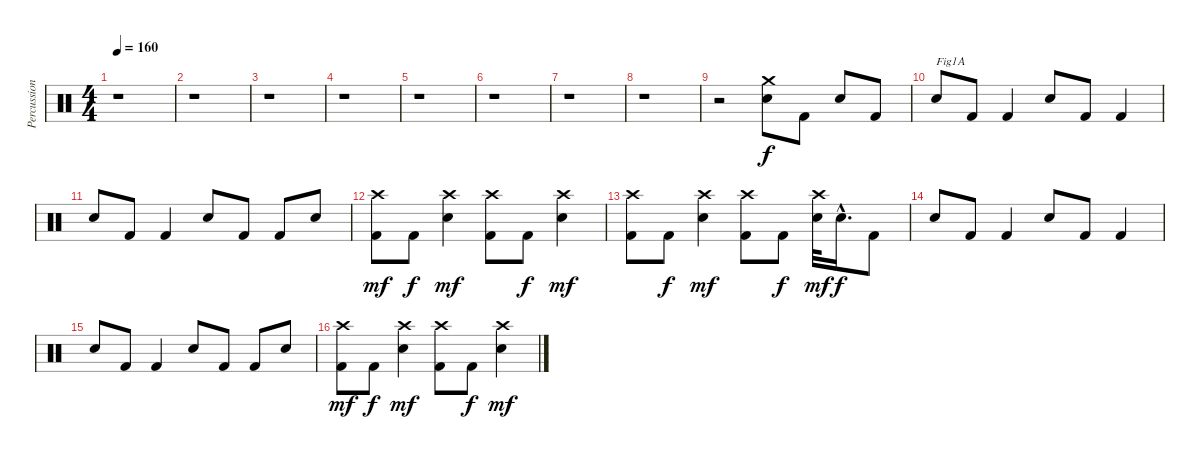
\track ("Percussions" "Percussion") {instrument percussion}
\staff {score}
\articulation defaults
\ts (4 4)
\tempo 160
\clef neutral
\ks c
r.1{dy f} |
r.1 |
r.1 |
r.1 |
r.1 |
r.1 |
r.1 |
r.1 |
r.2 ("Electric Snare (hit)" "Crash medium (hit)").8 "Kick (hit) 2".8 "Electric Snare (hit)".8 "Kick (hit) 2".8 |
"Electric Snare (hit)".8{txt "Fig1A"} "Kick (hit) 2".8 "Kick (hit) 2".4 "Electric Snare (hit)".8 "Kick (hit) 2".8 "Kick (hit) 2".4 |
"Electric Snare (hit)".8 "Kick (hit) 2".8 "Kick (hit) 2".4 "Electric Snare (hit)".8 "Kick (hit) 2".8 "Kick (hit) 2".8 "Electric Snare (hit)".8 |
("Kick (hit) 2" "Crash high (hit)").8{dy mf} "Kick (hit) 2".8{dy f} ("Electric Snare (hit)" "Crash high (hit)").4{dy mf} ("Kick (hit) 2" "Crash high (hit)").8 "Kick (hit) 2".8{dy f} ("Electric Snare (hit)" "Crash high (hit)").4{dy mf} |
("Kick (hit) 2" "Crash high (hit)").8 "Kick (hit) 2".8{dy f} ("Electric Snare (hit)" "Crash high (hit)").4{dy mf} ("Kick (hit) 2" "Crash high (hit)").8 "Kick (hit) 2".8{dy f} ("Electric Snare (hit)" "Crash high (hit)").32{dy mf} "Electric Snare (hit)"{hac}.16{d dy f} "Kick (hit) 2".8 |
"Electric Snare (hit)".8 "Kick (hit) 2".8 "Kick (hit) 2".4 "Electric Snare (hit)".8 "Kick (hit) 2".8 "Kick (hit) 2".4 |
"Electric Snare (hit)".8 "Kick (hit) 2".8 "Kick (hit) 2".4 "Electric Snare (hit)".8 "Kick (hit) 2".8 "Kick (hit) 2".8 "Electric Snare (hit)".8 |
("Kick (hit) 2" "Crash high (hit)").8{dy mf} "Kick (hit) 2".8{dy f} ("Electric Snare (hit)" "Crash high (hit)").4{dy mf} ("Kick (hit) 2" "Crash high (hit)").8 "Kick (hit) 2".8{dy f} ("Electric Snare (hit)" "Crash high (hit)").4{dy mf}
